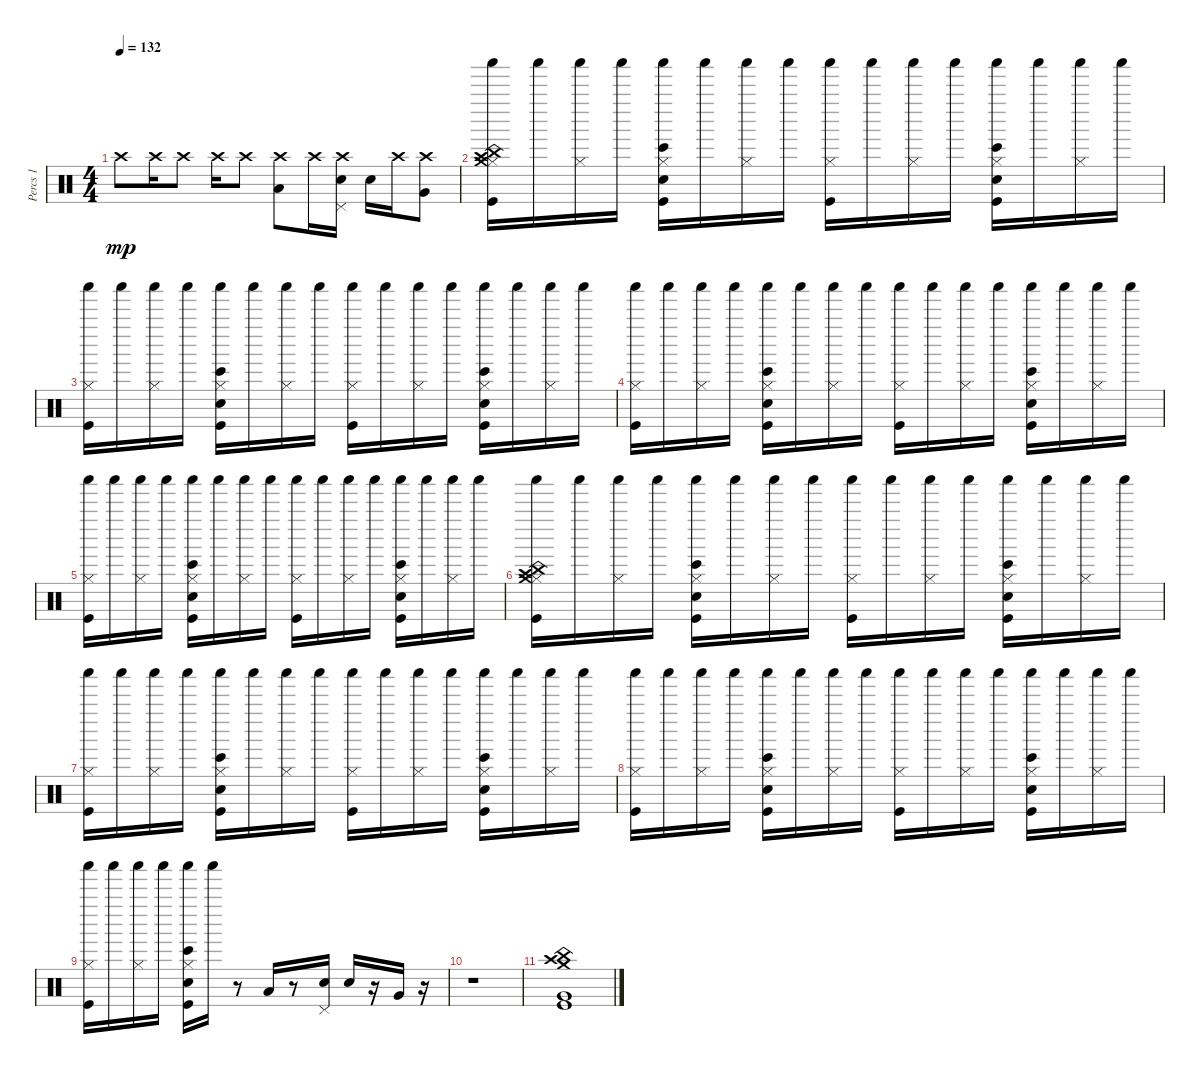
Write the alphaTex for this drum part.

\track ("Percs 1" "Percs 1") {instrument percussion}
\staff {score}
\articulation defaults
\ts (4 4)
\tempo 132
\clef neutral
\ks c "Crash high (hit)".8{dy mp} "Crash high (hit)".16 "Crash high (hit)".8 "Crash high (hit)".16 "Crash high (hit)".8
("Low Floor Tom (hit)" "Crash high (hit)").8 "Crash high (hit)".16 ("Snare (hit) 2" "Pedal Hi-Hat (hit)" "Crash high (hit)").16 "Snare (hit) 2".16 "Crash high (hit)".16 ("Very Low Tom (hit)" "Crash high (hit)").8 |
("Shaker (hit)" "Kick (hit)" "Hi-Hat (closed)" "Crash high (hit)" "China (hit)" "Crash medium (hit)").16 "Shaker (hit)".16 ("Hi-Hat (closed)" "Shaker (hit)").16 "Shaker (hit)".16 ("Hi-Hat (closed)" "Kick (hit)" "Electric Snare (hit)" "Bongo High (hit)" "Shaker (hit)").16 "Shaker (hit)".16 ("Shaker (hit)" "Hi-Hat (closed)").16 "Shaker (hit)".16 ("Hi-Hat (closed)" "Kick (hit)" "Shaker (hit)").16 "Shaker (hit)".16 ("Hi-Hat (closed)" "Shaker (hit)").16 "Shaker (hit)".16 ("Hi-Hat (closed)" "Electric Snare (hit)" "Shaker (hit)" "Bongo High (hit)" "Kick (hit)").16 "Shaker (hit)".16 ("Hi-Hat (closed)" "Shaker (hit)").16 "Shaker (hit)".16 |
("Shaker (hit)" "Kick (hit)" "Hi-Hat (closed)").16 "Shaker (hit)".16 ("Shaker (hit)" "Hi-Hat (closed)").16 "Shaker (hit)".16 ("Shaker (hit)" "Hi-Hat (closed)" "Electric Snare (hit)" "Kick (hit)" "Bongo High (hit)").16 "Shaker (hit)".16 ("Hi-Hat (closed)" "Shaker (hit)").16 "Shaker (hit)".16 ("Hi-Hat (closed)" "Shaker (hit)" "Kick (hit)").16 "Shaker (hit)".16 ("Hi-Hat (closed)" "Shaker (hit)").16 "Shaker (hit)".16 ("Shaker (hit)" "Bongo High (hit)" "Kick (hit)" "Electric Snare (hit)" "Hi-Hat (closed)").16 "Shaker (hit)".16 ("Shaker (hit)" "Hi-Hat (closed)").16 "Shaker (hit)".16 |
("Hi-Hat (closed)" "Kick (hit)" "Shaker (hit)").16 "Shaker (hit)".16 ("Hi-Hat (closed)" "Shaker (hit)").16 "Shaker (hit)".16 ("Hi-Hat (closed)" "Kick (hit)" "Electric Snare (hit)" "Bongo High (hit)" "Shaker (hit)").16 "Shaker (hit)".16 ("Shaker (hit)" "Hi-Hat (closed)").16 "Shaker (hit)".16 ("Hi-Hat (closed)" "Kick (hit)" "Shaker (hit)").16 "Shaker (hit)".16 ("Hi-Hat (closed)" "Shaker (hit)").16 "Shaker (hit)".16 ("Hi-Hat (closed)" "Electric Snare (hit)" "Shaker (hit)" "Bongo High (hit)" "Kick (hit)").16 "Shaker (hit)".16 ("Hi-Hat (closed)" "Shaker (hit)").16 "Shaker (hit)".16 |
("Shaker (hit)" "Kick (hit)" "Hi-Hat (closed)").16 "Shaker (hit)".16 ("Shaker (hit)" "Hi-Hat (closed)").16 "Shaker (hit)".16 ("Shaker (hit)" "Hi-Hat (closed)" "Electric Snare (hit)" "Kick (hit)" "Bongo High (hit)").16 "Shaker (hit)".16 ("Hi-Hat (closed)" "Shaker (hit)").16 "Shaker (hit)".16 ("Hi-Hat (closed)" "Shaker (hit)" "Kick (hit)").16 "Shaker (hit)".16 ("Hi-Hat (closed)" "Shaker (hit)").16 "Shaker (hit)".16 ("Shaker (hit)" "Bongo High (hit)" "Kick (hit)" "Electric Snare (hit)" "Hi-Hat (closed)").16 "Shaker (hit)".16 ("Shaker (hit)" "Hi-Hat (closed)").16 "Shaker (hit)".16 |
("Shaker (hit)" "Kick (hit)" "Hi-Hat (closed)" "Crash high (hit)" "China (hit)" "Crash medium (hit)").16 "Shaker (hit)".16 ("Hi-Hat (closed)" "Shaker (hit)").16 "Shaker (hit)".16 ("Hi-Hat (closed)" "Kick (hit)" "Electric Snare (hit)" "Bongo High (hit)" "Shaker (hit)").16 "Shaker (hit)".16 ("Shaker (hit)" "Hi-Hat (closed)").16 "Shaker (hit)".16 ("Hi-Hat (closed)" "Kick (hit)" "Shaker (hit)").16 "Shaker (hit)".16 ("Hi-Hat (closed)" "Shaker (hit)").16 "Shaker (hit)".16 ("Hi-Hat (closed)" "Electric Snare (hit)" "Shaker (hit)" "Bongo High (hit)" "Kick (hit)").16 "Shaker (hit)".16 ("Hi-Hat (closed)" "Shaker (hit)").16 "Shaker (hit)".16 |
("Shaker (hit)" "Kick (hit)" "Hi-Hat (closed)").16 "Shaker (hit)".16 ("Shaker (hit)" "Hi-Hat (closed)").16 "Shaker (hit)".16 ("Shaker (hit)" "Hi-Hat (closed)" "Electric Snare (hit)" "Kick (hit)" "Bongo High (hit)").16 "Shaker (hit)".16 ("Hi-Hat (closed)" "Shaker (hit)").16 "Shaker (hit)".16 ("Hi-Hat (closed)" "Shaker (hit)" "Kick (hit)").16 "Shaker (hit)".16 ("Hi-Hat (closed)" "Shaker (hit)").16 "Shaker (hit)".16 ("Shaker (hit)" "Bongo High (hit)" "Kick (hit)" "Electric Snare (hit)" "Hi-Hat (closed)").16 "Shaker (hit)".16 ("Shaker (hit)" "Hi-Hat (closed)").16 "Shaker (hit)".16 |
("Hi-Hat (closed)" "Kick (hit)" "Shaker (hit)").16 "Shaker (hit)".16 ("Hi-Hat (closed)" "Shaker (hit)").16 "Shaker (hit)".16 ("Hi-Hat (closed)" "Kick (hit)" "Electric Snare (hit)" "Bongo High (hit)" "Shaker (hit)").16 "Shaker (hit)".16 ("Shaker (hit)" "Hi-Hat (closed)").16 "Shaker (hit)".16 ("Hi-Hat (closed)" "Kick (hit)" "Shaker (hit)").16 "Shaker (hit)".16 ("Hi-Hat (closed)" "Shaker (hit)").16 "Shaker (hit)".16 ("Hi-Hat (closed)" "Electric Snare (hit)" "Shaker (hit)" "Bongo High (hit)" "Kick (hit)").16 "Shaker (hit)".16 ("Hi-Hat (closed)" "Shaker (hit)").16 "Shaker (hit)".16 |
("Shaker (hit)" "Hi-Hat (closed)" "Kick (hit)").16 "Shaker (hit)".16 ("Shaker (hit)" "Hi-Hat (closed)").16 "Shaker (hit)".16 ("Shaker (hit)" "Bongo High (hit)" "Kick (hit)" "Electric Snare (hit)" "Hi-Hat (closed)").16 "Shaker (hit)".16 r.8 "Low Floor Tom (hit)".16 r.8 ("Snare (hit) 2" "Pedal Hi-Hat (hit)").16 "Snare (hit) 2".16 r.16 "Very Low Tom (hit)".16 r.16 |
r.1 |
("Very Low Tom (hit)" "Kick (hit)" "Crash medium (hit)" "China (hit)" "Crash high (hit)").1
